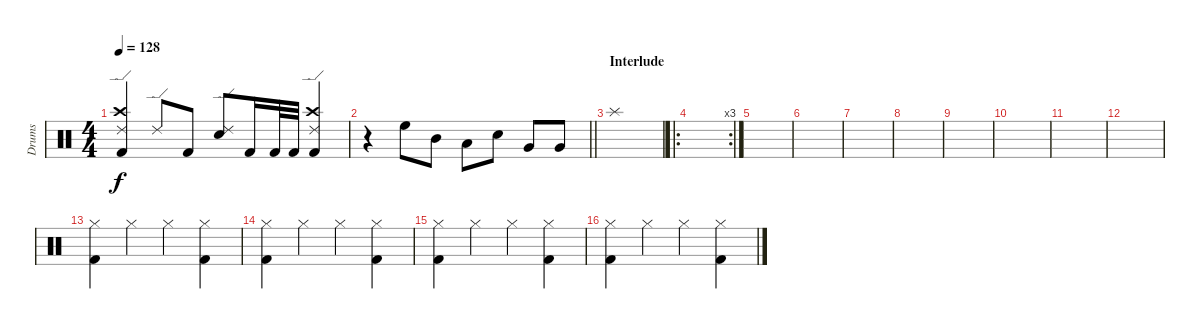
\track ("Drums" "Drums") {instrument percussion}
\staff {score}
\articulation defaults
\ts (4 4)
\tempo 128
\clef neutral
\ks c
("Ride (edge) 2" "Crash high (hit)" "Kick (hit) 2").4{dy f} "Ride (edge) 2".8 "Kick (hit) 2".8 ("Ride (edge) 2" "Snare (hit) 2").8 "Kick (hit) 2".16 "Kick (hit) 2".32 "Kick (hit) 2".32 ("Ride (edge) 2" "Crash high (hit)" "Kick (hit) 2").4 |
\barLineRight lightlight
r.4 "High Floor Tom (hit)".8 "Mid Tom (hit)".8 "Low Tom (hit)".8 "Snare (hit) 2".8 "Very Low Tom (hit)".8 "Very Low Tom (hit)".8 |
\section ("" "Interlude")
"Splash (hit)".1 |
\ro
\rc 3
|
|
|
|
|
|
|
|
|
("Kick (hit) 2" "Hi-Hat (closed)").4 "Hi-Hat (closed)".4 "Hi-Hat (closed)".4 ("Kick (hit) 2" "Hi-Hat (closed)").4 |
("Kick (hit) 2" "Hi-Hat (closed)").4 "Hi-Hat (closed)".4 "Hi-Hat (closed)".4 ("Kick (hit) 2" "Hi-Hat (closed)").4 |
("Kick (hit) 2" "Hi-Hat (closed)").4 "Hi-Hat (closed)".4 "Hi-Hat (closed)".4 ("Kick (hit) 2" "Hi-Hat (closed)").4 |
("Kick (hit) 2" "Hi-Hat (closed)").4 "Hi-Hat (closed)".4 "Hi-Hat (closed)".4 ("Kick (hit) 2" "Hi-Hat (closed)").4
